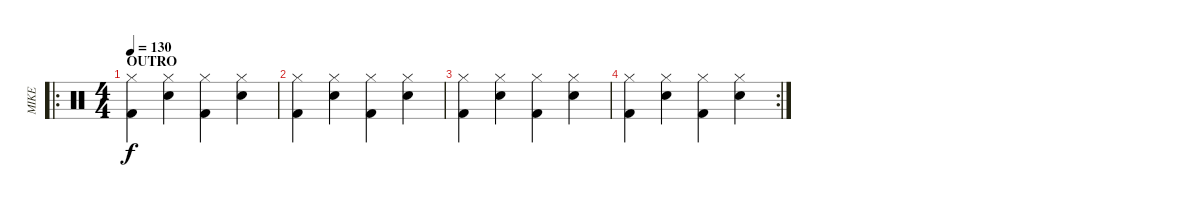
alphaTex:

\track ("MIKE" "MIKE") {instrument percussion}
\staff {score}
\articulation defaults
\ro
\ts (4 4)
\section ("" "OUTRO")
\tempo 130
\clef neutral
\ks c
("Hi-Hat (closed)" "Kick (hit) 2").4{dy f} ("Hi-Hat (closed)" "Electric Snare (hit)").4 ("Hi-Hat (closed)" "Kick (hit) 2").4 ("Hi-Hat (closed)" "Electric Snare (hit)").4 |
("Hi-Hat (closed)" "Kick (hit) 2").4 ("Hi-Hat (closed)" "Electric Snare (hit)").4 ("Hi-Hat (closed)" "Kick (hit) 2").4 ("Hi-Hat (closed)" "Electric Snare (hit)").4 |
("Hi-Hat (closed)" "Kick (hit) 2").4 ("Hi-Hat (closed)" "Electric Snare (hit)").4 ("Hi-Hat (closed)" "Kick (hit) 2").4 ("Hi-Hat (closed)" "Electric Snare (hit)").4 |
\rc 2
("Hi-Hat (closed)" "Kick (hit) 2").4 ("Hi-Hat (closed)" "Electric Snare (hit)").4 ("Hi-Hat (closed)" "Kick (hit) 2").4 ("Hi-Hat (closed)" "Electric Snare (hit)").4
